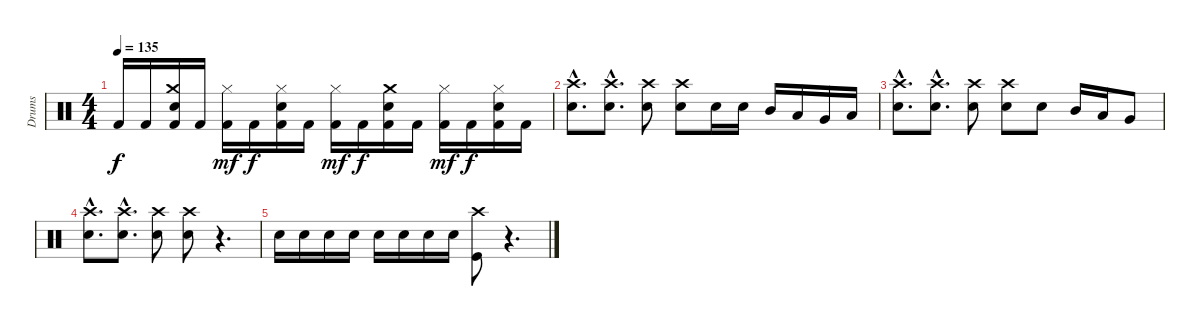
\track ("Drums" "Drums") {instrument percussion}
\staff {score}
\articulation defaults
\ts (4 4)
\tempo 135
\clef neutral
\ks c "Kick (hit) 2".16{dy f} "Kick (hit) 2".16
("Crash medium (hit)" "Snare (hit) 2" "Kick (hit) 2").16 "Kick (hit) 2".16 ("Hi-Hat (closed)" "Kick (hit) 2").16{dy mf} "Kick (hit) 2".16{dy f} ("Hi-Hat (closed)" "Snare (hit) 2" "Kick (hit) 2").16 "Kick (hit) 2".16 ("Hi-Hat (closed)" "Kick (hit) 2").16{dy mf} "Kick (hit) 2".16{dy f} ("Crash medium (hit)" "Snare (hit) 2" "Kick (hit) 2").16 "Kick (hit) 2".16 ("Hi-Hat (closed)" "Kick (hit) 2").16{dy mf} "Kick (hit) 2".16{dy f} ("Hi-Hat (closed)" "Snare (hit) 2" "Kick (hit) 2").16 "Kick (hit) 2".16 |
("Crash high (hit)"{hac} "Snare (hit) 2"{hac}).8{d} ("Crash high (hit)"{hac} "Snare (hit) 2"{hac}).8{d} ("Crash high (hit)" "Snare (hit) 2").8 ("Crash high (hit)" "Snare (hit) 2").8 "Snare (hit) 2".16 "Snare (hit) 2".16 "Mid Tom (hit)".16 "Low Tom (hit)".16 "Very Low Tom (hit)".16 "Low Floor Tom (hit)".16 |
("Crash high (hit)"{hac} "Snare (hit) 2"{hac}).8{d} ("Crash high (hit)"{hac} "Snare (hit) 2"{hac}).8{d} ("Crash high (hit)" "Snare (hit) 2").8 ("Crash high (hit)" "Snare (hit) 2").8 "Snare (hit) 2".8 "Mid Tom (hit)".16 "Low Tom (hit)".16 "Very Low Tom (hit)".8 |
("Crash high (hit)"{hac} "Snare (hit) 2"{hac}).8{d} ("Crash high (hit)"{hac} "Snare (hit) 2"{hac}).8{d} ("Crash high (hit)" "Snare (hit) 2").8 ("Crash high (hit)" "Snare (hit) 2").8 r.4{d} |
"Snare (hit) 2".16 "Snare (hit) 2".16 "Snare (hit) 2".16 "Snare (hit) 2".16 "Snare (hit) 2".16 "Snare (hit) 2".16 "Snare (hit) 2".16 "Snare (hit) 2".16 ("Crash high (hit)" "Kick (hit)").8 r.4{d}
